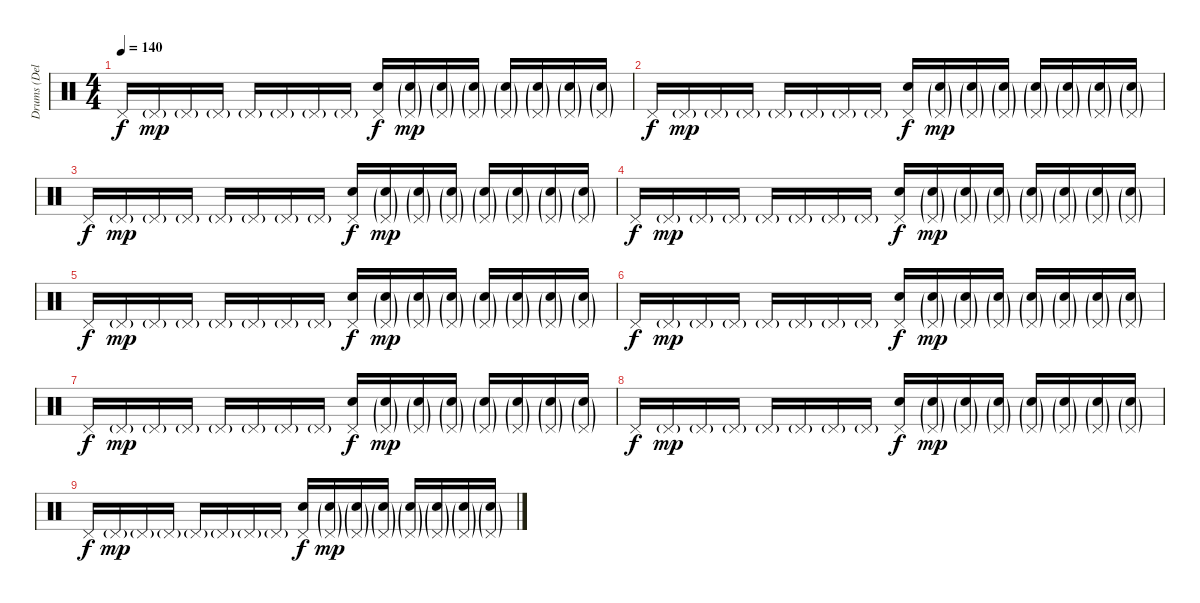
\track ("Drums (Delay Effect)" "Drums (Del") {instrument percussion}
\staff {score}
\articulation defaults
\ts (4 4)
\tempo 140
\clef neutral
\ks c "Pedal Hi-Hat (hit)".16{dy f} "Pedal Hi-Hat (hit)"{g}.16{dy mp} "Pedal Hi-Hat (hit)"{g}.16 "Pedal Hi-Hat (hit)"{g}.16 "Pedal Hi-Hat (hit)"{g}.16 "Pedal Hi-Hat (hit)"{g}.16 "Pedal Hi-Hat (hit)"{g}.16 "Pedal Hi-Hat (hit)"{g}.16
("Pedal Hi-Hat (hit)" "Electric Snare (hit)").16{dy f} ("Pedal Hi-Hat (hit)"{g} "Electric Snare (hit)"{g}).16{dy mp} ("Pedal Hi-Hat (hit)"{g} "Electric Snare (hit)"{g}).16 ("Pedal Hi-Hat (hit)"{g} "Electric Snare (hit)"{g}).16 ("Pedal Hi-Hat (hit)"{g} "Electric Snare (hit)"{g}).16 ("Pedal Hi-Hat (hit)"{g} "Electric Snare (hit)"{g}).16 ("Pedal Hi-Hat (hit)"{g} "Electric Snare (hit)"{g}).16 ("Pedal Hi-Hat (hit)"{g} "Electric Snare (hit)"{g}).16 |
"Pedal Hi-Hat (hit)".16{dy f} "Pedal Hi-Hat (hit)"{g}.16{dy mp} "Pedal Hi-Hat (hit)"{g}.16 "Pedal Hi-Hat (hit)"{g}.16 "Pedal Hi-Hat (hit)"{g}.16 "Pedal Hi-Hat (hit)"{g}.16 "Pedal Hi-Hat (hit)"{g}.16 "Pedal Hi-Hat (hit)"{g}.16 ("Pedal Hi-Hat (hit)" "Electric Snare (hit)").16{dy f} ("Pedal Hi-Hat (hit)"{g} "Electric Snare (hit)"{g}).16{dy mp} ("Pedal Hi-Hat (hit)"{g} "Electric Snare (hit)"{g}).16 ("Pedal Hi-Hat (hit)"{g} "Electric Snare (hit)"{g}).16 ("Pedal Hi-Hat (hit)"{g} "Electric Snare (hit)"{g}).16 ("Pedal Hi-Hat (hit)"{g} "Electric Snare (hit)"{g}).16 ("Pedal Hi-Hat (hit)"{g} "Electric Snare (hit)"{g}).16 ("Pedal Hi-Hat (hit)"{g} "Electric Snare (hit)"{g}).16 |
"Pedal Hi-Hat (hit)".16{dy f} "Pedal Hi-Hat (hit)"{g}.16{dy mp} "Pedal Hi-Hat (hit)"{g}.16 "Pedal Hi-Hat (hit)"{g}.16 "Pedal Hi-Hat (hit)"{g}.16 "Pedal Hi-Hat (hit)"{g}.16 "Pedal Hi-Hat (hit)"{g}.16 "Pedal Hi-Hat (hit)"{g}.16 ("Pedal Hi-Hat (hit)" "Electric Snare (hit)").16{dy f} ("Pedal Hi-Hat (hit)"{g} "Electric Snare (hit)"{g}).16{dy mp} ("Pedal Hi-Hat (hit)"{g} "Electric Snare (hit)"{g}).16 ("Pedal Hi-Hat (hit)"{g} "Electric Snare (hit)"{g}).16 ("Pedal Hi-Hat (hit)"{g} "Electric Snare (hit)"{g}).16 ("Pedal Hi-Hat (hit)"{g} "Electric Snare (hit)"{g}).16 ("Pedal Hi-Hat (hit)"{g} "Electric Snare (hit)"{g}).16 ("Pedal Hi-Hat (hit)"{g} "Electric Snare (hit)"{g}).16 |
"Pedal Hi-Hat (hit)".16{dy f} "Pedal Hi-Hat (hit)"{g}.16{dy mp} "Pedal Hi-Hat (hit)"{g}.16 "Pedal Hi-Hat (hit)"{g}.16 "Pedal Hi-Hat (hit)"{g}.16 "Pedal Hi-Hat (hit)"{g}.16 "Pedal Hi-Hat (hit)"{g}.16 "Pedal Hi-Hat (hit)"{g}.16 ("Pedal Hi-Hat (hit)" "Electric Snare (hit)").16{dy f} ("Pedal Hi-Hat (hit)"{g} "Electric Snare (hit)"{g}).16{dy mp} ("Pedal Hi-Hat (hit)"{g} "Electric Snare (hit)"{g}).16 ("Pedal Hi-Hat (hit)"{g} "Electric Snare (hit)"{g}).16 ("Pedal Hi-Hat (hit)"{g} "Electric Snare (hit)"{g}).16 ("Pedal Hi-Hat (hit)"{g} "Electric Snare (hit)"{g}).16 ("Pedal Hi-Hat (hit)"{g} "Electric Snare (hit)"{g}).16 ("Pedal Hi-Hat (hit)"{g} "Electric Snare (hit)"{g}).16 |
"Pedal Hi-Hat (hit)".16{dy f} "Pedal Hi-Hat (hit)"{g}.16{dy mp} "Pedal Hi-Hat (hit)"{g}.16 "Pedal Hi-Hat (hit)"{g}.16 "Pedal Hi-Hat (hit)"{g}.16 "Pedal Hi-Hat (hit)"{g}.16 "Pedal Hi-Hat (hit)"{g}.16 "Pedal Hi-Hat (hit)"{g}.16 ("Pedal Hi-Hat (hit)" "Electric Snare (hit)").16{dy f} ("Pedal Hi-Hat (hit)"{g} "Electric Snare (hit)"{g}).16{dy mp} ("Pedal Hi-Hat (hit)"{g} "Electric Snare (hit)"{g}).16 ("Pedal Hi-Hat (hit)"{g} "Electric Snare (hit)"{g}).16 ("Pedal Hi-Hat (hit)"{g} "Electric Snare (hit)"{g}).16 ("Pedal Hi-Hat (hit)"{g} "Electric Snare (hit)"{g}).16 ("Pedal Hi-Hat (hit)"{g} "Electric Snare (hit)"{g}).16 ("Pedal Hi-Hat (hit)"{g} "Electric Snare (hit)"{g}).16 |
"Pedal Hi-Hat (hit)".16{dy f} "Pedal Hi-Hat (hit)"{g}.16{dy mp} "Pedal Hi-Hat (hit)"{g}.16 "Pedal Hi-Hat (hit)"{g}.16 "Pedal Hi-Hat (hit)"{g}.16 "Pedal Hi-Hat (hit)"{g}.16 "Pedal Hi-Hat (hit)"{g}.16 "Pedal Hi-Hat (hit)"{g}.16 ("Pedal Hi-Hat (hit)" "Electric Snare (hit)").16{dy f} ("Pedal Hi-Hat (hit)"{g} "Electric Snare (hit)"{g}).16{dy mp} ("Pedal Hi-Hat (hit)"{g} "Electric Snare (hit)"{g}).16 ("Pedal Hi-Hat (hit)"{g} "Electric Snare (hit)"{g}).16 ("Pedal Hi-Hat (hit)"{g} "Electric Snare (hit)"{g}).16 ("Pedal Hi-Hat (hit)"{g} "Electric Snare (hit)"{g}).16 ("Pedal Hi-Hat (hit)"{g} "Electric Snare (hit)"{g}).16 ("Pedal Hi-Hat (hit)"{g} "Electric Snare (hit)"{g}).16 |
"Pedal Hi-Hat (hit)".16{dy f} "Pedal Hi-Hat (hit)"{g}.16{dy mp} "Pedal Hi-Hat (hit)"{g}.16 "Pedal Hi-Hat (hit)"{g}.16 "Pedal Hi-Hat (hit)"{g}.16 "Pedal Hi-Hat (hit)"{g}.16 "Pedal Hi-Hat (hit)"{g}.16 "Pedal Hi-Hat (hit)"{g}.16 ("Pedal Hi-Hat (hit)" "Electric Snare (hit)").16{dy f} ("Pedal Hi-Hat (hit)"{g} "Electric Snare (hit)"{g}).16{dy mp} ("Pedal Hi-Hat (hit)"{g} "Electric Snare (hit)"{g}).16 ("Pedal Hi-Hat (hit)"{g} "Electric Snare (hit)"{g}).16 ("Pedal Hi-Hat (hit)"{g} "Electric Snare (hit)"{g}).16 ("Pedal Hi-Hat (hit)"{g} "Electric Snare (hit)"{g}).16 ("Pedal Hi-Hat (hit)"{g} "Electric Snare (hit)"{g}).16 ("Pedal Hi-Hat (hit)"{g} "Electric Snare (hit)"{g}).16 |
"Pedal Hi-Hat (hit)".16{dy f} "Pedal Hi-Hat (hit)"{g}.16{dy mp} "Pedal Hi-Hat (hit)"{g}.16 "Pedal Hi-Hat (hit)"{g}.16 "Pedal Hi-Hat (hit)"{g}.16 "Pedal Hi-Hat (hit)"{g}.16 "Pedal Hi-Hat (hit)"{g}.16 "Pedal Hi-Hat (hit)"{g}.16 ("Pedal Hi-Hat (hit)" "Electric Snare (hit)").16{dy f} ("Pedal Hi-Hat (hit)"{g} "Electric Snare (hit)"{g}).16{dy mp} ("Pedal Hi-Hat (hit)"{g} "Electric Snare (hit)"{g}).16 ("Pedal Hi-Hat (hit)"{g} "Electric Snare (hit)"{g}).16 ("Pedal Hi-Hat (hit)"{g} "Electric Snare (hit)"{g}).16 ("Pedal Hi-Hat (hit)"{g} "Electric Snare (hit)"{g}).16 ("Pedal Hi-Hat (hit)"{g} "Electric Snare (hit)"{g}).16 ("Pedal Hi-Hat (hit)"{g} "Electric Snare (hit)"{g}).16 |
"Pedal Hi-Hat (hit)".16{dy f} "Pedal Hi-Hat (hit)"{g}.16{dy mp} "Pedal Hi-Hat (hit)"{g}.16 "Pedal Hi-Hat (hit)"{g}.16 "Pedal Hi-Hat (hit)"{g}.16 "Pedal Hi-Hat (hit)"{g}.16 "Pedal Hi-Hat (hit)"{g}.16 "Pedal Hi-Hat (hit)"{g}.16 ("Pedal Hi-Hat (hit)" "Electric Snare (hit)").16{dy f} ("Pedal Hi-Hat (hit)"{g} "Electric Snare (hit)"{g}).16{dy mp} ("Pedal Hi-Hat (hit)"{g} "Electric Snare (hit)"{g}).16 ("Pedal Hi-Hat (hit)"{g} "Electric Snare (hit)"{g}).16 ("Pedal Hi-Hat (hit)"{g} "Electric Snare (hit)"{g}).16 ("Pedal Hi-Hat (hit)"{g} "Electric Snare (hit)"{g}).16 ("Pedal Hi-Hat (hit)"{g} "Electric Snare (hit)"{g}).16 ("Pedal Hi-Hat (hit)"{g} "Electric Snare (hit)"{g}).16
